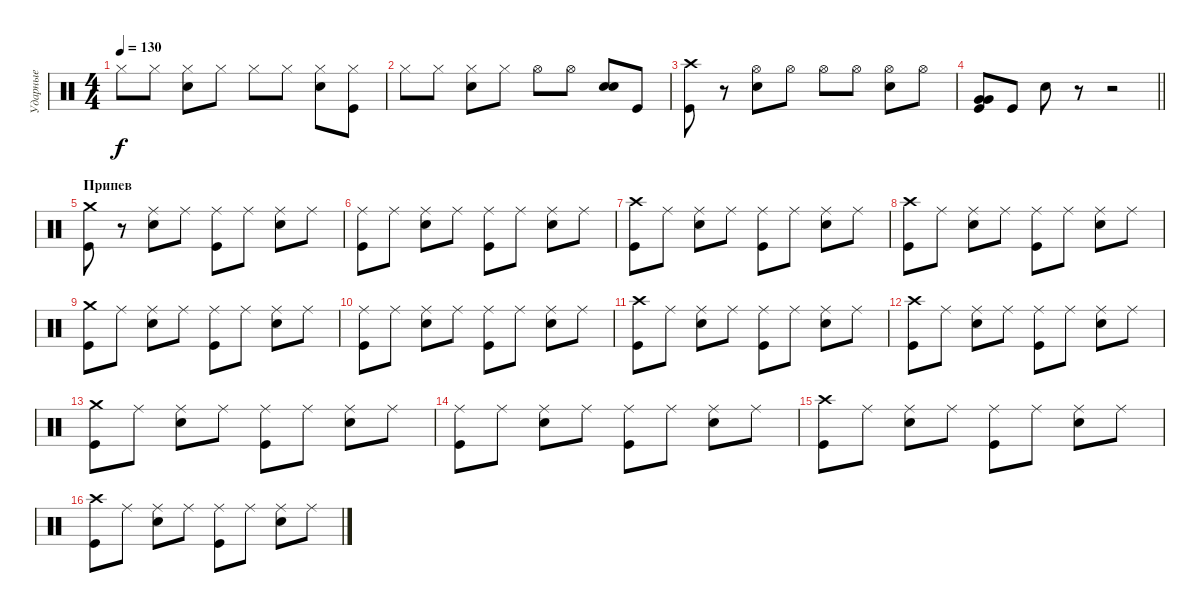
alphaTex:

\track ("Ударные" "Ударные") {instrument percussion}
\staff {score}
\articulation defaults
\ts (4 4)
\tempo 130
\clef neutral
\ks c "Hi-Hat (closed)".8{dy f} "Hi-Hat (closed)".8
("Snare (hit) 2" "Hi-Hat (closed)").8 "Hi-Hat (closed)".8 "Hi-Hat (closed)".8 "Hi-Hat (closed)".8 ("Snare (hit) 2" "Hi-Hat (closed)").8 ("Kick (hit)" "Hi-Hat (closed)").8 |
"Hi-Hat (closed)".8 "Hi-Hat (closed)".8 ("Snare (hit) 2" "Hi-Hat (closed)").8 "Hi-Hat (closed)".8 "Hi-Hat (open)".8 "Hi-Hat (open)".8 ("Snare (hit) 2" "Snare (hit) 2").8{bd 120} "Kick (hit)".8 |
("Kick (hit)" "Crash high (hit)").8 r.8 ("Snare (hit) 2" "Hi-Hat (open)").8 "Hi-Hat (open)".8 "Hi-Hat (open)".8 "Hi-Hat (open)".8 ("Snare (hit) 2" "Hi-Hat (open)").8 "Hi-Hat (open)".8 |
\barLineRight lightlight
("Kick (hit)" "Very Low Tom (hit)" "Very Low Tom (hit)").8{bd 120} "Kick (hit)".8 "Snare (hit) 2".8 r.8 r.2 |
\section ("" "Припев")
("Kick (hit)" "Crash medium (hit)").8 r.8 ("Snare (hit) 2" "Ride (middle)").8 "Ride (middle)".8 ("Kick (hit)" "Ride (middle)").8 "Ride (middle)".8 ("Snare (hit) 2" "Ride (middle)").8 "Ride (middle)".8 |
("Kick (hit)" "Ride (middle)").8 "Ride (middle)".8 ("Snare (hit) 2" "Ride (middle)").8 "Ride (middle)".8 ("Kick (hit)" "Ride (middle)").8 "Ride (middle)".8 ("Snare (hit) 2" "Ride (middle)").8 "Ride (middle)".8 |
("Kick (hit)" "Crash high (hit)").8 "Ride (middle)".8 ("Snare (hit) 2" "Ride (middle)").8 "Ride (middle)".8 ("Kick (hit)" "Ride (middle)").8 "Ride (middle)".8 ("Snare (hit) 2" "Ride (middle)").8 "Ride (middle)".8 |
("Kick (hit)" "Crash high (hit)").8 "Ride (middle)".8 ("Snare (hit) 2" "Ride (middle)").8 "Ride (middle)".8 ("Kick (hit)" "Ride (middle)").8 "Ride (middle)".8 ("Snare (hit) 2" "Ride (middle)").8 "Ride (middle)".8 |
("Kick (hit)" "Crash medium (hit)").8 "Ride (middle)".8 ("Snare (hit) 2" "Ride (middle)").8 "Ride (middle)".8 ("Kick (hit)" "Ride (middle)").8 "Ride (middle)".8 ("Snare (hit) 2" "Ride (middle)").8 "Ride (middle)".8 |
("Kick (hit)" "Ride (middle)").8 "Ride (middle)".8 ("Snare (hit) 2" "Ride (middle)").8 "Ride (middle)".8 ("Kick (hit)" "Ride (middle)").8 "Ride (middle)".8 ("Snare (hit) 2" "Ride (middle)").8 "Ride (middle)".8 |
("Kick (hit)" "Crash high (hit)").8 "Ride (middle)".8 ("Snare (hit) 2" "Ride (middle)").8 "Ride (middle)".8 ("Kick (hit)" "Ride (middle)").8 "Ride (middle)".8 ("Snare (hit) 2" "Ride (middle)").8 "Ride (middle)".8 |
("Kick (hit)" "Crash high (hit)").8 "Ride (middle)".8 ("Snare (hit) 2" "Ride (middle)").8 "Ride (middle)".8 ("Kick (hit)" "Ride (middle)").8 "Ride (middle)".8 ("Snare (hit) 2" "Ride (middle)").8 "Ride (middle)".8 |
("Kick (hit)" "Crash medium (hit)").8 "Ride (middle)".8 ("Snare (hit) 2" "Ride (middle)").8 "Ride (middle)".8 ("Kick (hit)" "Ride (middle)").8 "Ride (middle)".8 ("Snare (hit) 2" "Ride (middle)").8 "Ride (middle)".8 |
("Kick (hit)" "Ride (middle)").8 "Ride (middle)".8 ("Snare (hit) 2" "Ride (middle)").8 "Ride (middle)".8 ("Kick (hit)" "Ride (middle)").8 "Ride (middle)".8 ("Snare (hit) 2" "Ride (middle)").8 "Ride (middle)".8 |
("Kick (hit)" "Crash high (hit)").8 "Ride (middle)".8 ("Snare (hit) 2" "Ride (middle)").8 "Ride (middle)".8 ("Kick (hit)" "Ride (middle)").8 "Ride (middle)".8 ("Snare (hit) 2" "Ride (middle)").8 "Ride (middle)".8 |
("Kick (hit)" "Crash high (hit)").8 "Ride (middle)".8 ("Snare (hit) 2" "Ride (middle)").8 "Ride (middle)".8 ("Kick (hit)" "Ride (middle)").8 "Ride (middle)".8 ("Snare (hit) 2" "Ride (middle)").8 "Ride (middle)".8
